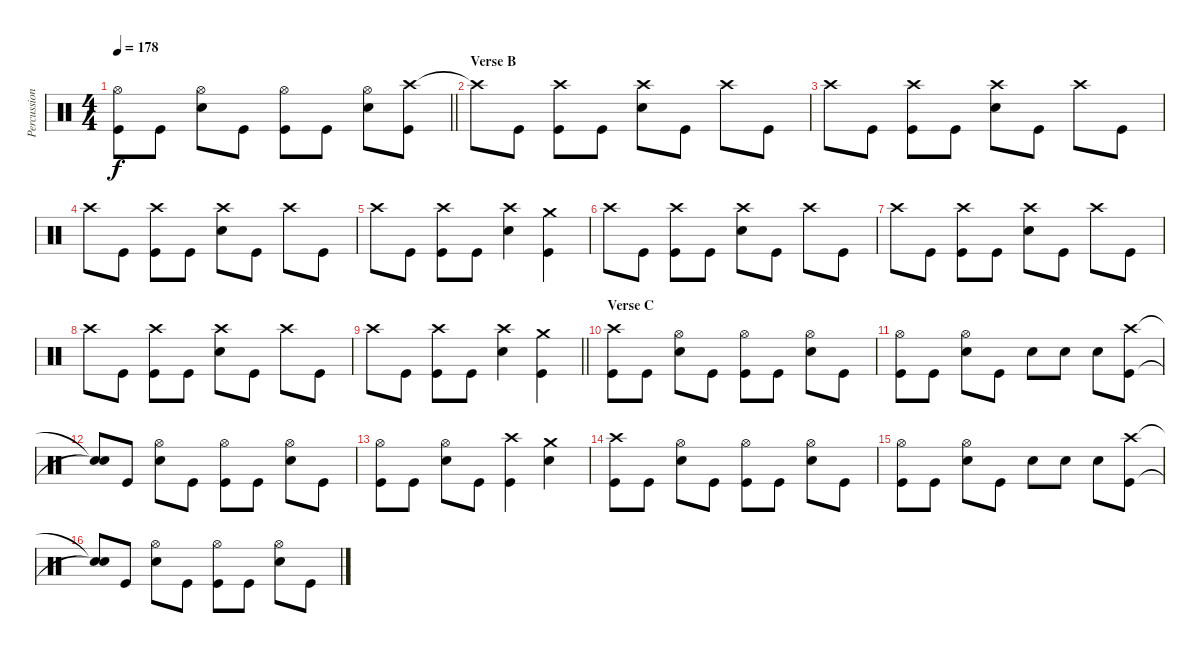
\track ("Percussion" "Percussion") {instrument percussion}
\staff {score}
\articulation defaults
\ts (4 4)
\tempo 178
\clef neutral
\barLineRight lightlight
\ks c
("Hi-Hat (open)" "Kick (hit)").8{dy f} "Kick (hit)".8 ("Hi-Hat (open)" "Snare (hit) 2").8 "Kick (hit)".8 ("Hi-Hat (open)" "Kick (hit)").8 "Kick (hit)".8 ("Hi-Hat (open)" "Snare (hit) 2").8 ("Crash high (hit)" "Kick (hit)").8 |
\section ("" "Verse B")
"Crash high (hit)"{t}.8 "Kick (hit)".8 ("Crash high (hit)" "Kick (hit)").8 "Kick (hit)".8 ("Crash high (hit)" "Snare (hit) 2").8 "Kick (hit)".8 "Crash high (hit)".8 "Kick (hit)".8 |
"Crash high (hit)".8 "Kick (hit)".8 ("Crash high (hit)" "Kick (hit)").8 "Kick (hit)".8 ("Crash high (hit)" "Snare (hit) 2").8 "Kick (hit)".8 "Crash high (hit)".8 "Kick (hit)".8 |
"Crash high (hit)".8 "Kick (hit)".8 ("Crash high (hit)" "Kick (hit)").8 "Kick (hit)".8 ("Crash high (hit)" "Snare (hit) 2").8 "Kick (hit)".8 "Crash high (hit)".8 "Kick (hit)".8 |
"Crash high (hit)".8 "Kick (hit)".8 ("Crash high (hit)" "Kick (hit)").8 "Kick (hit)".8 ("Crash high (hit)" "Snare (hit) 2").4 ("Crash medium (hit)" "Kick (hit)").4 |
"Crash high (hit)".8 "Kick (hit)".8 ("Crash high (hit)" "Kick (hit)").8 "Kick (hit)".8 ("Crash high (hit)" "Snare (hit) 2").8 "Kick (hit)".8 "Crash high (hit)".8 "Kick (hit)".8 |
"Crash high (hit)".8 "Kick (hit)".8 ("Crash high (hit)" "Kick (hit)").8 "Kick (hit)".8 ("Crash high (hit)" "Snare (hit) 2").8 "Kick (hit)".8 "Crash high (hit)".8 "Kick (hit)".8 |
"Crash high (hit)".8 "Kick (hit)".8 ("Crash high (hit)" "Kick (hit)").8 "Kick (hit)".8 ("Crash high (hit)" "Snare (hit) 2").8 "Kick (hit)".8 "Crash high (hit)".8 "Kick (hit)".8 |
\barLineRight lightlight "Crash high (hit)".8 "Kick (hit)".8
("Crash high (hit)" "Kick (hit)").8 "Kick (hit)".8 ("Crash high (hit)" "Snare (hit) 2").4 ("Crash medium (hit)" "Kick (hit)").4 |
\section ("" "Verse C")
("Crash high (hit)" "Kick (hit)").8 "Kick (hit)".8 ("Hi-Hat (open)" "Snare (hit) 2").8 "Kick (hit)".8 ("Hi-Hat (open)" "Kick (hit)").8 "Kick (hit)".8 ("Hi-Hat (open)" "Snare (hit) 2").8 "Kick (hit)".8 |
("Hi-Hat (open)" "Kick (hit)").8 "Kick (hit)".8 ("Hi-Hat (open)" "Snare (hit) 2").8 "Kick (hit)".8 "Snare (hit) 2".8 "Snare (hit) 2".8 "Snare (hit) 2".8 ("Crash high (hit)" "Kick (hit)").8 |
("Snare (hit)"{t} "Snare (hit)"{t}).8 "Kick (hit)".8 ("Hi-Hat (open)" "Snare (hit) 2").8 "Kick (hit)".8 ("Hi-Hat (open)" "Kick (hit)").8 "Kick (hit)".8 ("Hi-Hat (open)" "Snare (hit) 2").8 "Kick (hit)".8 |
("Hi-Hat (open)" "Kick (hit)").8 "Kick (hit)".8 ("Hi-Hat (open)" "Snare (hit) 2").8 "Kick (hit)".8 ("Crash high (hit)" "Kick (hit)").4 ("Crash medium (hit)" "Snare (hit) 2").4 |
("Crash high (hit)" "Kick (hit)").8 "Kick (hit)".8 ("Hi-Hat (open)" "Snare (hit) 2").8 "Kick (hit)".8 ("Hi-Hat (open)" "Kick (hit)").8 "Kick (hit)".8 ("Hi-Hat (open)" "Snare (hit) 2").8 "Kick (hit)".8 |
("Hi-Hat (open)" "Kick (hit)").8 "Kick (hit)".8 ("Hi-Hat (open)" "Snare (hit) 2").8 "Kick (hit)".8 "Snare (hit) 2".8 "Snare (hit) 2".8 "Snare (hit) 2".8 ("Crash high (hit)" "Kick (hit)").8 |
("Snare (hit)"{t} "Snare (hit)"{t}).8 "Kick (hit)".8 ("Hi-Hat (open)" "Snare (hit) 2").8 "Kick (hit)".8 ("Hi-Hat (open)" "Kick (hit)").8 "Kick (hit)".8 ("Hi-Hat (open)" "Snare (hit) 2").8 "Kick (hit)".8
